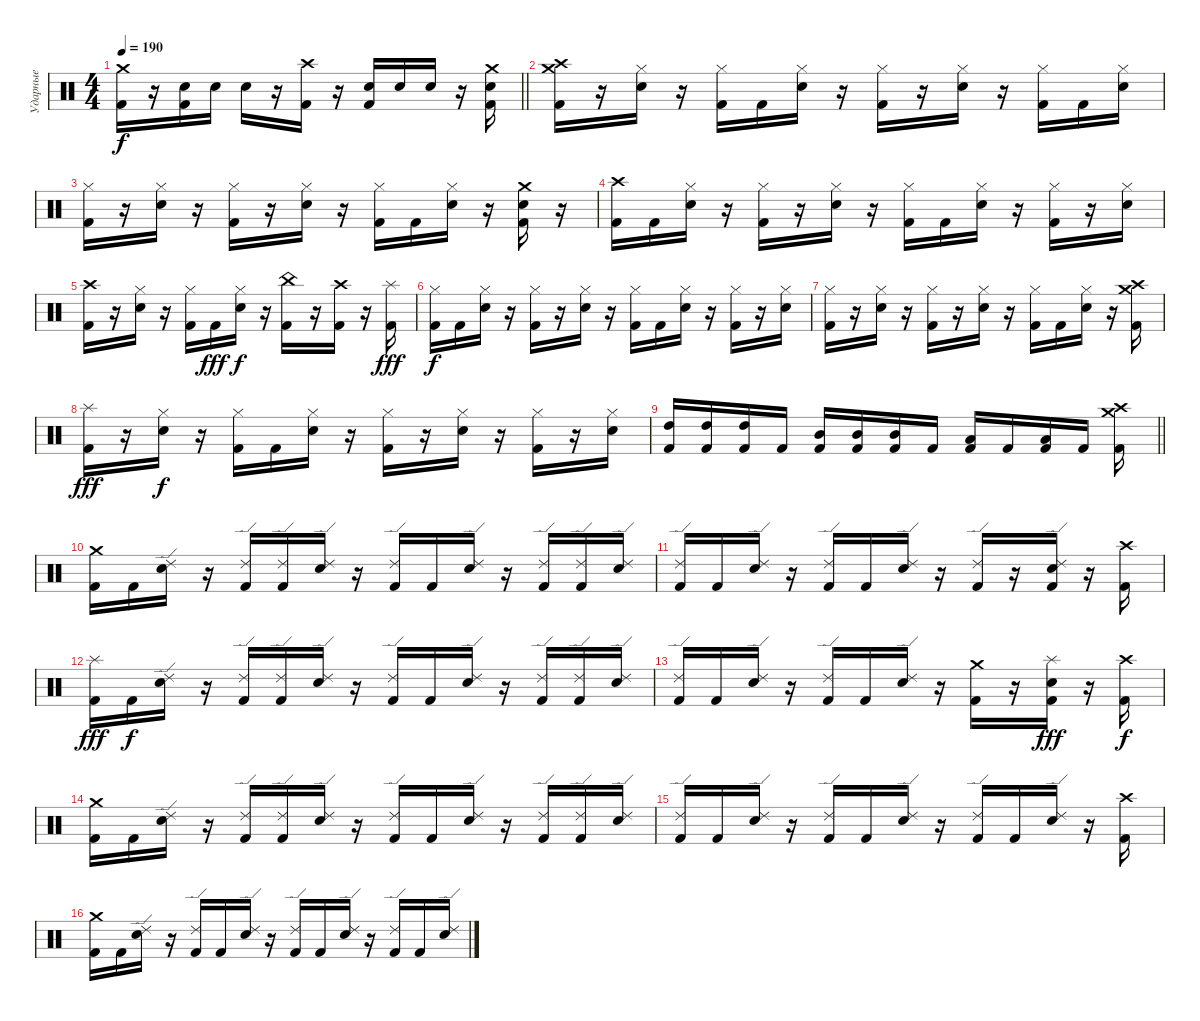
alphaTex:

\track ("Ударные" "Ударные") {instrument percussion}
\staff {score}
\articulation defaults
\ts (4 4)
\tempo 190
\clef neutral
\barLineRight lightlight
\ks c
("Crash medium (hit)" "Kick (hit) 2").16{dy f} r.16 ("Snare (hit) 2" "Kick (hit) 2").16 "Snare (hit) 2".16 "Snare (hit) 2".16 r.16 ("Crash high (hit)" "Kick (hit) 2").16 r.16 ("Snare (hit) 2" "Kick (hit) 2").16 "Snare (hit) 2".16 "Snare (hit) 2".16 r.16 ("Crash medium (hit)" "Snare (hit) 2" "Kick (hit) 2").16 |
("Crash high (hit)" "Crash medium (hit)" "Kick (hit) 2").16 r.16 ("Hi-Hat (closed)" "Snare (hit) 2").16 r.16 ("Hi-Hat (closed)" "Kick (hit) 2").16 "Kick (hit) 2".16 ("Hi-Hat (closed)" "Snare (hit) 2").16 r.16 ("Hi-Hat (closed)" "Kick (hit) 2").16 r.16 ("Hi-Hat (closed)" "Snare (hit) 2").16 r.16 ("Hi-Hat (closed)" "Kick (hit) 2").16 "Kick (hit) 2".16 ("Hi-Hat (closed)" "Snare (hit) 2").16 |
("Hi-Hat (closed)" "Kick (hit) 2").16 r.16 ("Hi-Hat (closed)" "Snare (hit) 2").16 r.16 ("Hi-Hat (closed)" "Kick (hit) 2").16 r.16 ("Hi-Hat (closed)" "Snare (hit) 2").16 r.16 ("Hi-Hat (closed)" "Kick (hit) 2").16 "Kick (hit) 2".16 ("Hi-Hat (closed)" "Snare (hit) 2").16 r.16 ("Crash medium (hit)" "Snare (hit) 2" "Kick (hit) 2").16 r.16 |
("Crash high (hit)" "Kick (hit) 2").16 "Kick (hit) 2".16 ("Hi-Hat (closed)" "Snare (hit) 2").16 r.16 ("Hi-Hat (closed)" "Kick (hit) 2").16 r.16 ("Hi-Hat (closed)" "Snare (hit) 2").16 r.16 ("Hi-Hat (closed)" "Kick (hit) 2").16 "Kick (hit) 2".16 ("Hi-Hat (closed)" "Snare (hit) 2").16 r.16 ("Hi-Hat (closed)" "Kick (hit) 2").16 r.16 ("Hi-Hat (closed)" "Snare (hit) 2").16 |
("Crash high (hit)" "Kick (hit) 2").16 r.16 ("Hi-Hat (closed)" "Snare (hit) 2").16 r.16 ("Hi-Hat (closed)" "Kick (hit) 2").16 "Kick (hit) 2".16{dy fff} ("Hi-Hat (closed)" "Snare (hit) 2").16{dy f} r.16 ("China (hit)" "Kick (hit) 2").16 r.16 ("Crash high (hit)" "Kick (hit) 2").16 r.16 ("Splash (hit)" "Kick (hit) 2").16{dy fff} |
("Hi-Hat (closed)" "Kick (hit) 2").16{dy f} "Kick (hit) 2".16 ("Hi-Hat (closed)" "Snare (hit) 2").16 r.16 ("Hi-Hat (closed)" "Kick (hit) 2").16 r.16 ("Hi-Hat (closed)" "Snare (hit) 2").16 r.16 ("Hi-Hat (closed)" "Kick (hit) 2").16 "Kick (hit) 2".16 ("Hi-Hat (closed)" "Snare (hit) 2").16 r.16 ("Hi-Hat (closed)" "Kick (hit) 2").16 r.16 ("Hi-Hat (closed)" "Snare (hit) 2").16 |
("Hi-Hat (closed)" "Kick (hit) 2").16 r.16 ("Hi-Hat (closed)" "Snare (hit) 2").16 r.16 ("Hi-Hat (closed)" "Kick (hit) 2").16 r.16 ("Hi-Hat (closed)" "Snare (hit) 2").16 r.16 ("Hi-Hat (closed)" "Kick (hit) 2").16 "Kick (hit) 2".16 ("Hi-Hat (closed)" "Snare (hit) 2").16 r.16 ("Crash high (hit)" "Crash medium (hit)" "Kick (hit) 2").16 |
("Splash (hit)" "Kick (hit) 2").16{dy fff} r.16 ("Hi-Hat (closed)" "Snare (hit) 2").16{dy f} r.16 ("Hi-Hat (closed)" "Kick (hit) 2").16 "Kick (hit) 2".16 ("Hi-Hat (closed)" "Snare (hit) 2").16 r.16 ("Hi-Hat (closed)" "Kick (hit) 2").16 r.16 ("Hi-Hat (closed)" "Snare (hit) 2").16 r.16 ("Hi-Hat (closed)" "Kick (hit) 2").16 r.16 ("Hi-Hat (closed)" "Snare (hit) 2").16 |
\barLineRight lightlight
("High Tom (hit)" "Kick (hit) 2").16 ("High Tom (hit)" "Kick (hit) 2").16 ("High Tom (hit)" "Kick (hit) 2").16 "Kick (hit) 2".16 ("Mid Tom (hit)" "Kick (hit) 2").16 ("Mid Tom (hit)" "Kick (hit) 2").16 ("Mid Tom (hit)" "Kick (hit) 2").16 "Kick (hit) 2".16 ("Low Tom (hit)" "Kick (hit) 2").16 "Kick (hit) 2".16 ("Low Tom (hit)" "Kick (hit) 2").16 "Kick (hit) 2".16 ("Crash medium (hit)" "Crash high (hit)" "Kick (hit) 2").16 |
("Crash medium (hit)" "Kick (hit) 2").16 "Kick (hit) 2".16 ("Ride (edge) 2" "Snare (hit) 2").16 r.16 ("Ride (edge) 2" "Kick (hit) 2").16 ("Ride (edge) 2" "Kick (hit) 2").16 ("Ride (edge) 2" "Snare (hit) 2").16 r.16 ("Ride (edge) 2" "Kick (hit) 2").16 "Kick (hit) 2".16 ("Ride (edge) 2" "Snare (hit) 2").16 r.16 ("Ride (edge) 2" "Kick (hit) 2").16 ("Ride (edge) 2" "Kick (hit) 2").16 ("Ride (edge) 2" "Snare (hit) 2").16 |
("Ride (edge) 2" "Kick (hit) 2").16 "Kick (hit) 2".16 ("Ride (edge) 2" "Snare (hit) 2").16 r.16 ("Ride (edge) 2" "Kick (hit) 2").16 "Kick (hit) 2".16 ("Ride (edge) 2" "Snare (hit) 2").16 r.16 ("Ride (edge) 2" "Kick (hit) 2").16 r.16 ("Ride (edge) 2" "Snare (hit) 2" "Kick (hit) 2").16 r.16 ("Crash high (hit)" "Kick (hit) 2").16 |
("Splash (hit)" "Kick (hit) 2").16{dy fff} "Kick (hit) 2".16{dy f} ("Ride (edge) 2" "Snare (hit) 2").16 r.16 ("Ride (edge) 2" "Kick (hit) 2").16 ("Ride (edge) 2" "Kick (hit) 2").16 ("Ride (edge) 2" "Snare (hit) 2").16 r.16 ("Ride (edge) 2" "Kick (hit) 2").16 "Kick (hit) 2".16 ("Ride (edge) 2" "Snare (hit) 2").16 r.16 ("Ride (edge) 2" "Kick (hit) 2").16 ("Ride (edge) 2" "Kick (hit) 2").16 ("Ride (edge) 2" "Snare (hit) 2").16 |
("Ride (edge) 2" "Kick (hit) 2").16 "Kick (hit) 2".16 ("Ride (edge) 2" "Snare (hit) 2").16 r.16 ("Ride (edge) 2" "Kick (hit) 2").16 "Kick (hit) 2".16 ("Ride (edge) 2" "Snare (hit) 2").16 r.16 ("Crash medium (hit)" "Kick (hit) 2").16 r.16 ("Splash (hit)" "Snare (hit) 2" "Kick (hit) 2").16{dy fff} r.16 ("Crash high (hit)" "Kick (hit) 2").16{dy f} |
("Crash medium (hit)" "Kick (hit) 2").16 "Kick (hit) 2".16 ("Ride (edge) 2" "Snare (hit) 2").16 r.16 ("Ride (edge) 2" "Kick (hit) 2").16 ("Ride (edge) 2" "Kick (hit) 2").16 ("Ride (edge) 2" "Snare (hit) 2").16 r.16 ("Ride (edge) 2" "Kick (hit) 2").16 "Kick (hit) 2".16 ("Ride (edge) 2" "Snare (hit) 2").16 r.16 ("Ride (edge) 2" "Kick (hit) 2").16 ("Ride (edge) 2" "Kick (hit) 2").16 ("Ride (edge) 2" "Snare (hit) 2").16 |
("Ride (edge) 2" "Kick (hit) 2").16 "Kick (hit) 2".16 ("Ride (edge) 2" "Snare (hit) 2").16 r.16 ("Ride (edge) 2" "Kick (hit) 2").16 "Kick (hit) 2".16 ("Ride (edge) 2" "Snare (hit) 2").16 r.16 ("Ride (edge) 2" "Kick (hit) 2").16 "Kick (hit) 2".16 ("Ride (edge) 2" "Snare (hit) 2").16 r.16 ("Crash high (hit)" "Kick (hit) 2").16 |
("Crash medium (hit)" "Kick (hit) 2").16 "Kick (hit) 2".16 ("Ride (edge) 2" "Snare (hit) 2").16 r.16 ("Ride (edge) 2" "Kick (hit) 2").16 "Kick (hit) 2".16 ("Ride (edge) 2" "Snare (hit) 2").16 r.16 ("Ride (edge) 2" "Kick (hit) 2").16 "Kick (hit) 2".16 ("Ride (edge) 2" "Snare (hit) 2").16 r.16 ("Ride (edge) 2" "Kick (hit) 2").16 "Kick (hit) 2".16 ("Ride (edge) 2" "Snare (hit) 2").16
